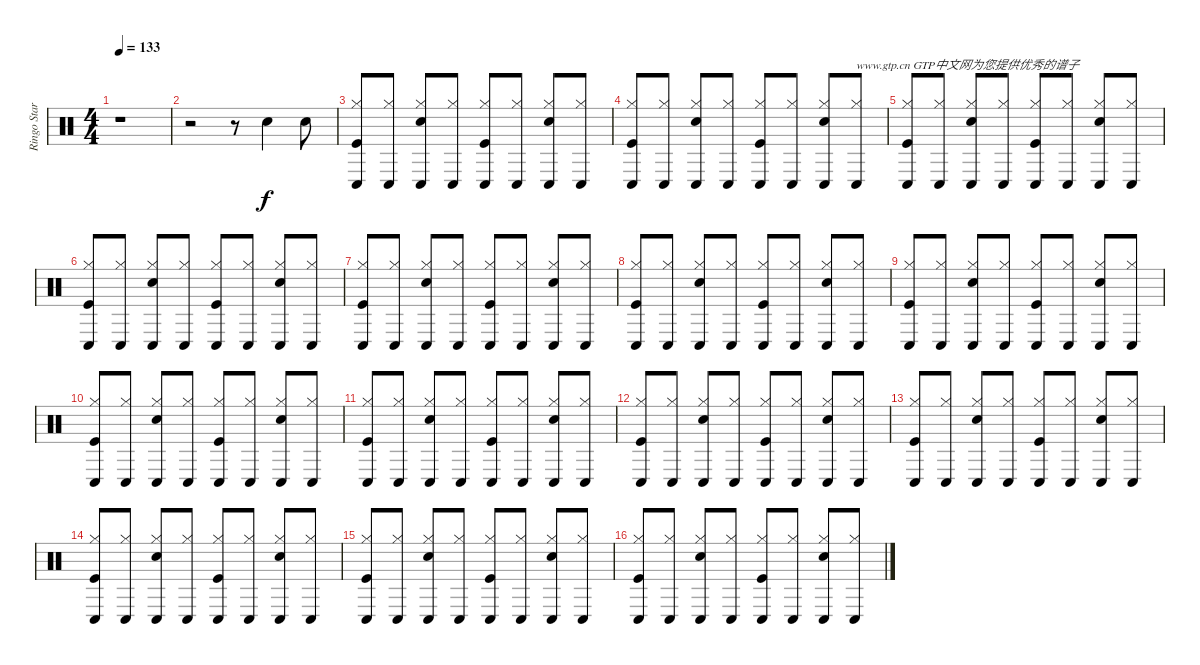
\track ("Ringo Starr - Drums" "Ringo Star") {instrument percussion}
\staff {score}
\articulation defaults
\ts (4 4)
\tempo 133
\clef neutral
\ks c
r.1{dy f} |
r.2 r.8 "Snare (hit) 2".4 "Snare (hit) 2".8 |
("Conga low (hit)" "Hi-Hat (closed)" "Kick (hit)").8 ("Conga low (hit)" "Hi-Hat (closed)").8 ("Conga low (hit)" "Hi-Hat (closed)" "Snare (hit) 2").8 ("Conga low (hit)" "Hi-Hat (closed)").8 ("Conga low (hit)" "Hi-Hat (closed)" "Kick (hit)").8 ("Conga low (hit)" "Hi-Hat (closed)").8 ("Conga low (hit)" "Hi-Hat (closed)" "Snare (hit) 2").8 ("Conga low (hit)" "Hi-Hat (closed)").8 |
("Kick (hit)" "Hi-Hat (closed)" "Conga low (hit)").8 ("Conga low (hit)" "Hi-Hat (closed)").8 ("Conga low (hit)" "Hi-Hat (closed)" "Snare (hit) 2").8 ("Conga low (hit)" "Hi-Hat (closed)").8 ("Conga low (hit)" "Hi-Hat (closed)" "Kick (hit)").8 ("Conga low (hit)" "Hi-Hat (closed)").8 ("Conga low (hit)" "Hi-Hat (closed)" "Snare (hit) 2").8 ("Conga low (hit)" "Hi-Hat (closed)").8{txt "www.gtp.cn GTP中文网为您提供优秀的谱子"} |
("Kick (hit)" "Hi-Hat (closed)" "Conga low (hit)").8 ("Conga low (hit)" "Hi-Hat (closed)").8 ("Conga low (hit)" "Hi-Hat (closed)" "Snare (hit) 2").8 ("Conga low (hit)" "Hi-Hat (closed)").8 ("Conga low (hit)" "Hi-Hat (closed)" "Kick (hit)").8 ("Conga low (hit)" "Hi-Hat (closed)").8 ("Conga low (hit)" "Hi-Hat (closed)" "Snare (hit) 2").8 ("Conga low (hit)" "Hi-Hat (closed)").8 |
("Kick (hit)" "Hi-Hat (closed)" "Conga low (hit)").8 ("Conga low (hit)" "Hi-Hat (closed)").8 ("Conga low (hit)" "Hi-Hat (closed)" "Snare (hit) 2").8 ("Conga low (hit)" "Hi-Hat (closed)").8 ("Conga low (hit)" "Hi-Hat (closed)" "Kick (hit)").8 ("Conga low (hit)" "Hi-Hat (closed)").8 ("Conga low (hit)" "Hi-Hat (closed)" "Snare (hit) 2").8 ("Conga low (hit)" "Hi-Hat (closed)").8 |
("Kick (hit)" "Hi-Hat (closed)" "Conga low (hit)").8 ("Conga low (hit)" "Hi-Hat (closed)").8 ("Conga low (hit)" "Hi-Hat (closed)" "Snare (hit) 2").8 ("Conga low (hit)" "Hi-Hat (closed)").8 ("Conga low (hit)" "Hi-Hat (closed)" "Kick (hit)").8 ("Conga low (hit)" "Hi-Hat (closed)").8 ("Conga low (hit)" "Hi-Hat (closed)" "Snare (hit) 2").8 ("Conga low (hit)" "Hi-Hat (closed)").8 |
("Kick (hit)" "Hi-Hat (closed)" "Conga low (hit)").8 ("Conga low (hit)" "Hi-Hat (closed)").8 ("Conga low (hit)" "Hi-Hat (closed)" "Snare (hit) 2").8 ("Conga low (hit)" "Hi-Hat (closed)").8 ("Conga low (hit)" "Hi-Hat (closed)" "Kick (hit)").8 ("Conga low (hit)" "Hi-Hat (closed)").8 ("Conga low (hit)" "Hi-Hat (closed)" "Snare (hit) 2").8 ("Conga low (hit)" "Hi-Hat (closed)").8 |
("Kick (hit)" "Hi-Hat (closed)" "Conga low (hit)").8 ("Conga low (hit)" "Hi-Hat (closed)").8 ("Conga low (hit)" "Hi-Hat (closed)" "Snare (hit) 2").8 ("Conga low (hit)" "Hi-Hat (closed)").8 ("Conga low (hit)" "Hi-Hat (closed)" "Kick (hit)").8 ("Conga low (hit)" "Hi-Hat (closed)").8 ("Conga low (hit)" "Hi-Hat (closed)" "Snare (hit) 2").8 ("Conga low (hit)" "Hi-Hat (closed)").8 |
("Kick (hit)" "Hi-Hat (closed)" "Conga low (hit)").8 ("Conga low (hit)" "Hi-Hat (closed)").8 ("Conga low (hit)" "Hi-Hat (closed)" "Snare (hit) 2").8 ("Conga low (hit)" "Hi-Hat (closed)").8 ("Conga low (hit)" "Hi-Hat (closed)" "Kick (hit)").8 ("Conga low (hit)" "Hi-Hat (closed)").8 ("Conga low (hit)" "Hi-Hat (closed)" "Snare (hit) 2").8 ("Conga low (hit)" "Hi-Hat (closed)").8 |
("Conga low (hit)" "Hi-Hat (closed)" "Kick (hit)").8 ("Conga low (hit)" "Hi-Hat (closed)").8 ("Conga low (hit)" "Hi-Hat (closed)" "Snare (hit) 2").8 ("Conga low (hit)" "Hi-Hat (closed)").8 ("Conga low (hit)" "Hi-Hat (closed)" "Kick (hit)").8 ("Conga low (hit)" "Hi-Hat (closed)").8 ("Conga low (hit)" "Hi-Hat (closed)" "Snare (hit) 2").8 ("Conga low (hit)" "Hi-Hat (closed)").8 |
("Conga low (hit)" "Hi-Hat (closed)" "Kick (hit)").8 ("Conga low (hit)" "Hi-Hat (closed)").8 ("Conga low (hit)" "Hi-Hat (closed)" "Snare (hit) 2").8 ("Conga low (hit)" "Hi-Hat (closed)").8 ("Conga low (hit)" "Hi-Hat (closed)" "Kick (hit)").8 ("Conga low (hit)" "Hi-Hat (closed)").8 ("Conga low (hit)" "Hi-Hat (closed)" "Snare (hit) 2").8 ("Conga low (hit)" "Hi-Hat (closed)").8 |
("Conga low (hit)" "Hi-Hat (closed)" "Kick (hit)").8 ("Conga low (hit)" "Hi-Hat (closed)").8 ("Conga low (hit)" "Hi-Hat (closed)" "Snare (hit) 2").8 ("Conga low (hit)" "Hi-Hat (closed)").8 ("Conga low (hit)" "Hi-Hat (closed)" "Kick (hit)").8 ("Conga low (hit)" "Hi-Hat (closed)").8 ("Conga low (hit)" "Hi-Hat (closed)" "Snare (hit) 2").8 ("Conga low (hit)" "Hi-Hat (closed)").8 |
("Conga low (hit)" "Hi-Hat (closed)" "Kick (hit)").8 ("Conga low (hit)" "Hi-Hat (closed)").8 ("Conga low (hit)" "Hi-Hat (closed)" "Snare (hit) 2").8 ("Conga low (hit)" "Hi-Hat (closed)").8 ("Conga low (hit)" "Hi-Hat (closed)" "Kick (hit)").8 ("Conga low (hit)" "Hi-Hat (closed)").8 ("Conga low (hit)" "Hi-Hat (closed)" "Snare (hit) 2").8 ("Conga low (hit)" "Hi-Hat (closed)").8 |
("Kick (hit)" "Hi-Hat (closed)" "Conga low (hit)").8 ("Conga low (hit)" "Hi-Hat (closed)").8 ("Conga low (hit)" "Hi-Hat (closed)" "Snare (hit) 2").8 ("Conga low (hit)" "Hi-Hat (closed)").8 ("Conga low (hit)" "Hi-Hat (closed)" "Kick (hit)").8 ("Conga low (hit)" "Hi-Hat (closed)").8 ("Conga low (hit)" "Hi-Hat (closed)" "Snare (hit) 2").8 ("Conga low (hit)" "Hi-Hat (closed)").8 |
("Kick (hit)" "Hi-Hat (closed)" "Conga low (hit)").8 ("Conga low (hit)" "Hi-Hat (closed)").8 ("Conga low (hit)" "Hi-Hat (closed)" "Snare (hit) 2").8 ("Conga low (hit)" "Hi-Hat (closed)").8 ("Conga low (hit)" "Hi-Hat (closed)" "Kick (hit)").8 ("Conga low (hit)" "Hi-Hat (closed)").8 ("Conga low (hit)" "Hi-Hat (closed)" "Snare (hit) 2").8 ("Conga low (hit)" "Hi-Hat (closed)").8
